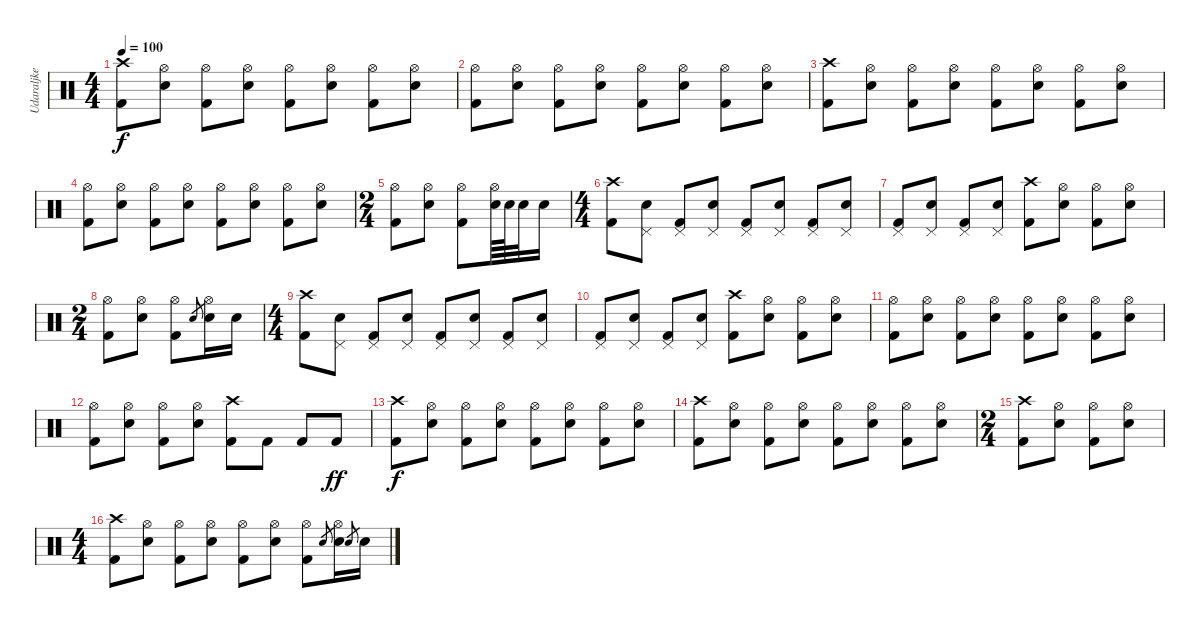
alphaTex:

\track ("Udaraljke" "Udaraljke") {instrument percussion}
\staff {score}
\articulation defaults
\ts (4 4)
\tempo 100
\clef neutral
\ks c
("Crash high (hit)" "Kick (hit) 2").8{dy f} ("Hi-Hat (open)" "Electric Snare (hit)").8 ("Hi-Hat (open)" "Kick (hit) 2").8 ("Hi-Hat (open)" "Electric Snare (hit)").8 ("Hi-Hat (open)" "Kick (hit) 2").8 ("Hi-Hat (open)" "Electric Snare (hit)").8 ("Hi-Hat (open)" "Kick (hit) 2").8 ("Hi-Hat (open)" "Electric Snare (hit)").8 |
("Hi-Hat (open)" "Kick (hit) 2").8 ("Hi-Hat (open)" "Electric Snare (hit)").8 ("Hi-Hat (open)" "Kick (hit) 2").8 ("Hi-Hat (open)" "Electric Snare (hit)").8 ("Hi-Hat (open)" "Kick (hit) 2").8 ("Hi-Hat (open)" "Electric Snare (hit)").8 ("Hi-Hat (open)" "Kick (hit) 2").8 ("Hi-Hat (open)" "Electric Snare (hit)").8 |
("Crash high (hit)" "Kick (hit) 2").8 ("Hi-Hat (open)" "Electric Snare (hit)").8 ("Hi-Hat (open)" "Kick (hit) 2").8 ("Hi-Hat (open)" "Electric Snare (hit)").8 ("Hi-Hat (open)" "Kick (hit) 2").8 ("Hi-Hat (open)" "Electric Snare (hit)").8 ("Hi-Hat (open)" "Kick (hit) 2").8 ("Hi-Hat (open)" "Electric Snare (hit)").8 |
("Hi-Hat (open)" "Kick (hit) 2").8 ("Hi-Hat (open)" "Electric Snare (hit)").8 ("Hi-Hat (open)" "Kick (hit) 2").8 ("Hi-Hat (open)" "Electric Snare (hit)").8 ("Hi-Hat (open)" "Kick (hit) 2").8 ("Hi-Hat (open)" "Electric Snare (hit)").8 ("Hi-Hat (open)" "Kick (hit) 2").8 ("Hi-Hat (open)" "Electric Snare (hit)").8 |
\ts (2 4)
("Hi-Hat (open)" "Kick (hit) 2").8 ("Hi-Hat (open)" "Electric Snare (hit)").8 ("Hi-Hat (open)" "Kick (hit) 2").8 ("Hi-Hat (open)" "Electric Snare (hit)").64 "Electric Snare (hit)".64 "Electric Snare (hit)".32 "Electric Snare (hit)".16 |
\ts (4 4)
("Crash high (hit)" "Kick (hit) 2").8 ("Pedal Hi-Hat (hit)" "Electric Snare (hit)").8 ("Pedal Hi-Hat (hit)" "Kick (hit) 2").8 ("Pedal Hi-Hat (hit)" "Electric Snare (hit)").8 ("Pedal Hi-Hat (hit)" "Kick (hit) 2").8 ("Pedal Hi-Hat (hit)" "Electric Snare (hit)").8 ("Pedal Hi-Hat (hit)" "Kick (hit) 2").8 ("Pedal Hi-Hat (hit)" "Electric Snare (hit)").8 |
("Pedal Hi-Hat (hit)" "Kick (hit) 2").8 ("Pedal Hi-Hat (hit)" "Electric Snare (hit)").8 ("Pedal Hi-Hat (hit)" "Kick (hit) 2").8 ("Pedal Hi-Hat (hit)" "Electric Snare (hit)").8 ("Crash high (hit)" "Kick (hit) 2").8 ("Hi-Hat (open)" "Electric Snare (hit)").8 ("Hi-Hat (open)" "Kick (hit) 2").8 ("Hi-Hat (open)" "Electric Snare (hit)").8 |
\ts (2 4)
("Hi-Hat (open)" "Kick (hit) 2").8 ("Hi-Hat (open)" "Electric Snare (hit)").8 ("Hi-Hat (open)" "Kick (hit) 2").8 "Electric Snare (hit)".8{gr} ("Hi-Hat (open)" "Electric Snare (hit)").16 "Electric Snare (hit)".16 |
\ts (4 4)
("Crash high (hit)" "Kick (hit) 2").8 ("Pedal Hi-Hat (hit)" "Electric Snare (hit)").8 ("Pedal Hi-Hat (hit)" "Kick (hit) 2").8 ("Pedal Hi-Hat (hit)" "Electric Snare (hit)").8 ("Pedal Hi-Hat (hit)" "Kick (hit) 2").8 ("Pedal Hi-Hat (hit)" "Electric Snare (hit)").8 ("Pedal Hi-Hat (hit)" "Kick (hit) 2").8 ("Pedal Hi-Hat (hit)" "Electric Snare (hit)").8 |
("Pedal Hi-Hat (hit)" "Kick (hit) 2").8 ("Pedal Hi-Hat (hit)" "Electric Snare (hit)").8 ("Pedal Hi-Hat (hit)" "Kick (hit) 2").8 ("Pedal Hi-Hat (hit)" "Electric Snare (hit)").8 ("Crash high (hit)" "Kick (hit) 2").8 ("Hi-Hat (open)" "Electric Snare (hit)").8 ("Hi-Hat (open)" "Kick (hit) 2").8 ("Hi-Hat (open)" "Electric Snare (hit)").8 |
("Hi-Hat (open)" "Kick (hit) 2").8 ("Hi-Hat (open)" "Electric Snare (hit)").8 ("Hi-Hat (open)" "Kick (hit) 2").8 ("Hi-Hat (open)" "Electric Snare (hit)").8 ("Hi-Hat (open)" "Kick (hit) 2").8 ("Hi-Hat (open)" "Electric Snare (hit)").8 ("Hi-Hat (open)" "Kick (hit) 2").8 ("Hi-Hat (open)" "Electric Snare (hit)").8 |
("Hi-Hat (open)" "Kick (hit) 2").8 ("Hi-Hat (open)" "Electric Snare (hit)").8 ("Hi-Hat (open)" "Kick (hit) 2").8 ("Hi-Hat (open)" "Electric Snare (hit)").8 ("Crash high (hit)" "Kick (hit) 2").8 "Kick (hit) 2".8 "Kick (hit) 2".8 "Kick (hit) 2".8{dy ff} |
("Crash high (hit)" "Kick (hit) 2").8{dy f} ("Hi-Hat (open)" "Electric Snare (hit)").8 ("Hi-Hat (open)" "Kick (hit) 2").8 ("Hi-Hat (open)" "Electric Snare (hit)").8 ("Hi-Hat (open)" "Kick (hit) 2").8 ("Hi-Hat (open)" "Electric Snare (hit)").8 ("Hi-Hat (open)" "Kick (hit) 2").8 ("Hi-Hat (open)" "Electric Snare (hit)").8 |
("Crash high (hit)" "Kick (hit) 2").8 ("Hi-Hat (open)" "Electric Snare (hit)").8 ("Hi-Hat (open)" "Kick (hit) 2").8 ("Hi-Hat (open)" "Electric Snare (hit)").8 ("Hi-Hat (open)" "Kick (hit) 2").8 ("Hi-Hat (open)" "Electric Snare (hit)").8 ("Hi-Hat (open)" "Kick (hit) 2").8 ("Hi-Hat (open)" "Electric Snare (hit)").8 |
\ts (2 4)
("Crash high (hit)" "Kick (hit) 2").8 ("Hi-Hat (open)" "Electric Snare (hit)").8 ("Hi-Hat (open)" "Kick (hit) 2").8 ("Hi-Hat (open)" "Electric Snare (hit)").8 |
\ts (4 4)
("Crash high (hit)" "Kick (hit) 2").8 ("Hi-Hat (open)" "Electric Snare (hit)").8 ("Hi-Hat (open)" "Kick (hit) 2").8 ("Hi-Hat (open)" "Electric Snare (hit)").8 ("Hi-Hat (open)" "Kick (hit) 2").8 ("Hi-Hat (open)" "Electric Snare (hit)").8 ("Hi-Hat (open)" "Kick (hit) 2").8 "Electric Snare (hit)".8{gr} ("Hi-Hat (open)" "Electric Snare (hit)").16 "Electric Snare (hit)".8{gr} "Electric Snare (hit)".16
